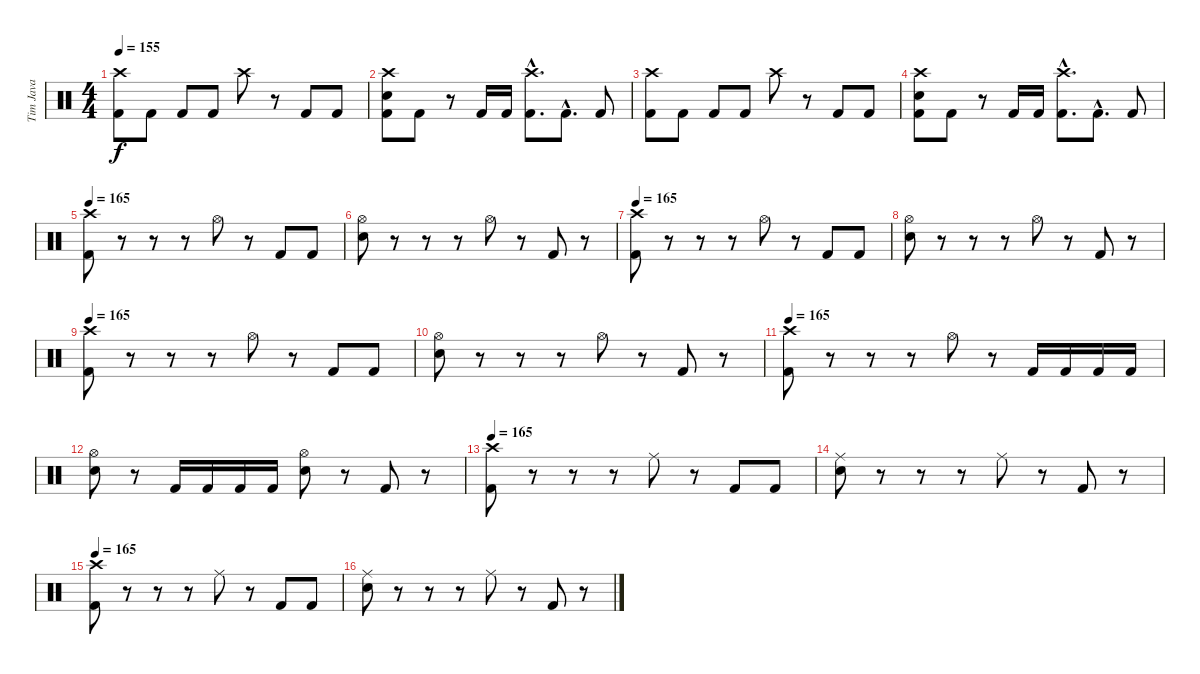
\track ("Tim Java" "Tim Java") {instrument percussion}
\staff {score}
\articulation defaults
\ts (4 4)
\tempo 155
\clef neutral
\ks c
("Crash high (hit)" "Kick (hit) 2").8{dy f} "Kick (hit) 2".8 "Kick (hit) 2".8 "Kick (hit) 2".8 "Crash high (hit)".8 r.8 "Kick (hit) 2".8 "Kick (hit) 2".8 |
("Crash high (hit)" "Electric Snare (hit)" "Kick (hit) 2").8 "Kick (hit) 2".8 r.8 "Kick (hit) 2".16 "Kick (hit) 2".16 ("Crash high (hit)"{hac} "Kick (hit) 2"{hac}).8{d} "Kick (hit) 2"{hac}.8{d} "Kick (hit) 2".8 |
("Crash high (hit)" "Kick (hit) 2").8 "Kick (hit) 2".8 "Kick (hit) 2".8 "Kick (hit) 2".8 "Crash high (hit)".8 r.8 "Kick (hit) 2".8 "Kick (hit) 2".8 |
("Crash high (hit)" "Electric Snare (hit)" "Kick (hit) 2").8 "Kick (hit) 2".8 r.8 "Kick (hit) 2".16 "Kick (hit) 2".16 ("Crash high (hit)"{hac} "Kick (hit) 2"{hac}).8{d} "Kick (hit) 2"{hac}.8{d} "Kick (hit) 2".8 |
\tempo 165
("Crash high (hit)" "Kick (hit) 2").8 r.8 r.8 r.8 "Hi-Hat (open)".8 r.8 "Kick (hit) 2".8 "Kick (hit) 2".8 |
("Hi-Hat (open)" "Electric Snare (hit)").8 r.8 r.8 r.8 "Hi-Hat (open)".8 r.8 "Kick (hit) 2".8 r.8 |
\tempo 165
("Crash high (hit)" "Kick (hit) 2").8 r.8 r.8 r.8 "Hi-Hat (open)".8 r.8 "Kick (hit) 2".8 "Kick (hit) 2".8 |
("Hi-Hat (open)" "Electric Snare (hit)").8 r.8 r.8 r.8 "Hi-Hat (open)".8 r.8 "Kick (hit) 2".8 r.8 |
\tempo 165
("Crash high (hit)" "Kick (hit) 2").8 r.8 r.8 r.8 "Hi-Hat (open)".8 r.8 "Kick (hit) 2".8 "Kick (hit) 2".8 |
("Hi-Hat (open)" "Electric Snare (hit)").8 r.8 r.8 r.8 "Hi-Hat (open)".8 r.8 "Kick (hit) 2".8 r.8 |
\tempo 165
("Crash high (hit)" "Kick (hit) 2").8 r.8 r.8 r.8 "Hi-Hat (open)".8 r.8 "Kick (hit) 2".16 "Kick (hit) 2".16 "Kick (hit) 2".16 "Kick (hit) 2".16 |
("Hi-Hat (open)" "Electric Snare (hit)").8 r.8 "Kick (hit) 2".16 "Kick (hit) 2".16 "Kick (hit) 2".16 "Kick (hit) 2".16 ("Hi-Hat (open)" "Electric Snare (hit)").8 r.8 "Kick (hit) 2".8 r.8 |
\tempo 165
("Crash high (hit)" "Kick (hit) 2").8 r.8 r.8 r.8 "Ride (middle)".8 r.8 "Kick (hit) 2".8 "Kick (hit) 2".8 |
("Ride (middle)" "Electric Snare (hit)").8 r.8 r.8 r.8 "Ride (middle)".8 r.8 "Kick (hit) 2".8 r.8 |
\tempo 165
("Crash high (hit)" "Kick (hit) 2").8 r.8 r.8 r.8 "Ride (middle)".8 r.8 "Kick (hit) 2".8 "Kick (hit) 2".8 |
("Ride (middle)" "Electric Snare (hit)").8 r.8 r.8 r.8 "Ride (middle)".8 r.8 "Kick (hit) 2".8 r.8
